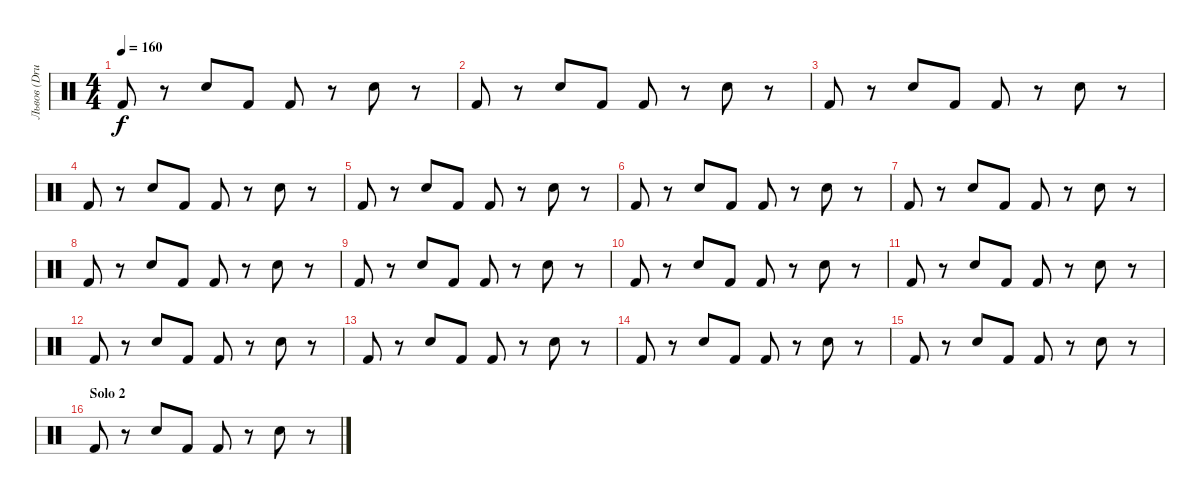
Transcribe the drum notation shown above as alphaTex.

\track ("Львов (Drums)" "Львов (Dru") {instrument percussion}
\staff {score}
\articulation defaults
\ts (4 4)
\tempo 160
\clef neutral
\ks c "Kick (hit) 2".8{dy f}
r.8 "Electric Snare (hit)".8 "Kick (hit) 2".8 "Kick (hit) 2".8 r.8 "Electric Snare (hit)".8 r.8 |
"Kick (hit) 2".8 r.8 "Electric Snare (hit)".8 "Kick (hit) 2".8 "Kick (hit) 2".8 r.8 "Electric Snare (hit)".8 r.8 |
"Kick (hit) 2".8 r.8 "Electric Snare (hit)".8 "Kick (hit) 2".8 "Kick (hit) 2".8 r.8 "Electric Snare (hit)".8 r.8 |
"Kick (hit) 2".8 r.8 "Electric Snare (hit)".8 "Kick (hit) 2".8 "Kick (hit) 2".8 r.8 "Electric Snare (hit)".8 r.8 |
"Kick (hit) 2".8 r.8 "Electric Snare (hit)".8 "Kick (hit) 2".8 "Kick (hit) 2".8 r.8 "Electric Snare (hit)".8 r.8 |
"Kick (hit) 2".8 r.8 "Electric Snare (hit)".8 "Kick (hit) 2".8 "Kick (hit) 2".8 r.8 "Electric Snare (hit)".8 r.8 |
"Kick (hit) 2".8 r.8 "Electric Snare (hit)".8 "Kick (hit) 2".8 "Kick (hit) 2".8 r.8 "Electric Snare (hit)".8 r.8 |
"Kick (hit) 2".8 r.8 "Electric Snare (hit)".8 "Kick (hit) 2".8 "Kick (hit) 2".8 r.8 "Electric Snare (hit)".8 r.8 |
"Kick (hit) 2".8 r.8 "Electric Snare (hit)".8 "Kick (hit) 2".8 "Kick (hit) 2".8 r.8 "Electric Snare (hit)".8 r.8 |
"Kick (hit) 2".8 r.8 "Electric Snare (hit)".8 "Kick (hit) 2".8 "Kick (hit) 2".8 r.8 "Electric Snare (hit)".8 r.8 |
"Kick (hit) 2".8 r.8 "Electric Snare (hit)".8 "Kick (hit) 2".8 "Kick (hit) 2".8 r.8 "Electric Snare (hit)".8 r.8 |
"Kick (hit) 2".8 r.8 "Electric Snare (hit)".8 "Kick (hit) 2".8 "Kick (hit) 2".8 r.8 "Electric Snare (hit)".8 r.8 |
"Kick (hit) 2".8 r.8 "Electric Snare (hit)".8 "Kick (hit) 2".8 "Kick (hit) 2".8 r.8 "Electric Snare (hit)".8 r.8 |
"Kick (hit) 2".8 r.8 "Electric Snare (hit)".8 "Kick (hit) 2".8 "Kick (hit) 2".8 r.8 "Electric Snare (hit)".8 r.8 |
"Kick (hit) 2".8 r.8 "Electric Snare (hit)".8 "Kick (hit) 2".8 "Kick (hit) 2".8 r.8 "Electric Snare (hit)".8 r.8 |
\section ("" "Solo 2")
"Kick (hit) 2".8 r.8 "Electric Snare (hit)".8 "Kick (hit) 2".8 "Kick (hit) 2".8 r.8 "Electric Snare (hit)".8 r.8
